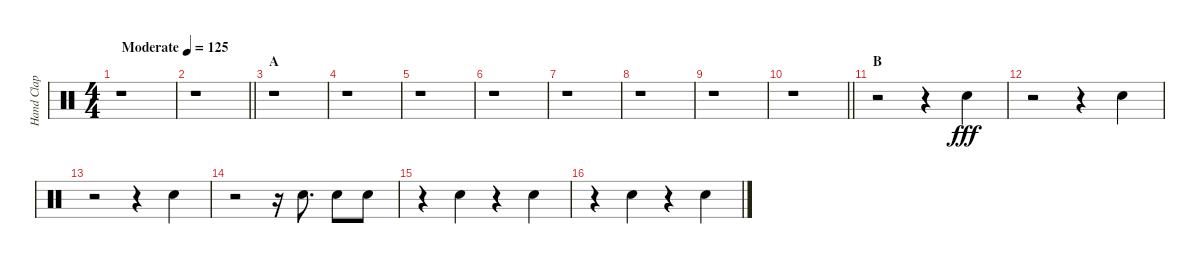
\track ("Hand Clap" "Hand Clap") {instrument percussion}
\staff {score}
\articulation defaults
\ts (4 4)
\tempo (125 "Moderate")
\clef neutral
\ks c
r.1{dy fff} |
\barLineRight lightlight
r.1 |
\section ("" "A")
r.1 |
r.1 |
r.1 |
r.1 |
r.1 |
r.1 |
r.1 |
\barLineRight lightlight
r.1 |
\section ("" "B")
r.2 r.4 "Hand Clap (hit)".4 |
r.2 r.4 "Hand Clap (hit)".4 |
r.2 r.4 "Hand Clap (hit)".4 |
r.2 r.16 "Hand Clap (hit)".8{d} "Hand Clap (hit)".8 "Hand Clap (hit)".8 |
r.4 "Hand Clap (hit)".4 r.4 "Hand Clap (hit)".4 |
r.4 "Hand Clap (hit)".4 r.4 "Hand Clap (hit)".4
